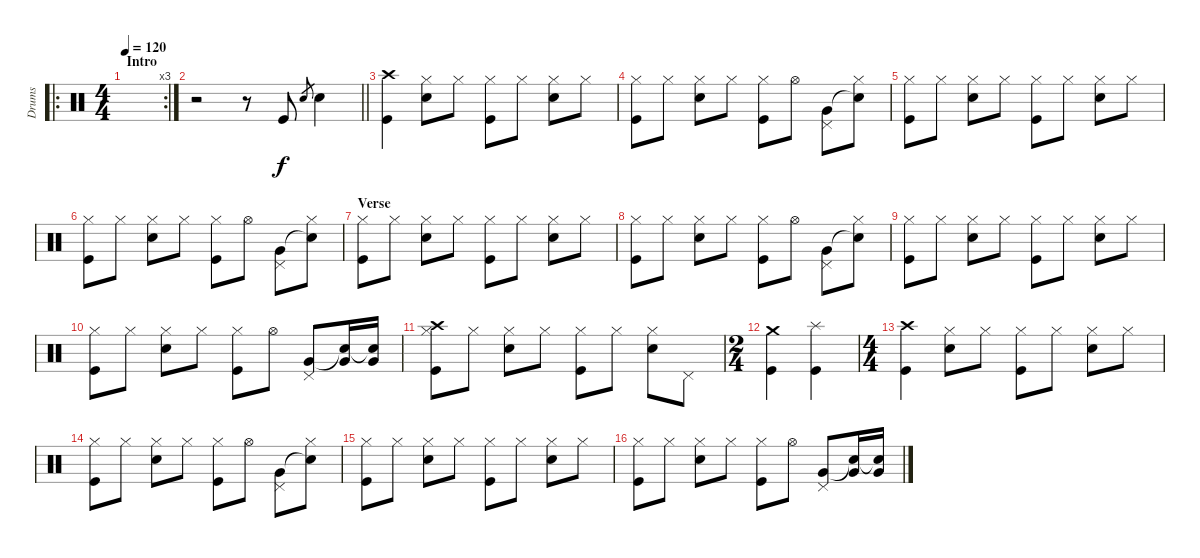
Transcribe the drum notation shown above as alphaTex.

\track ("Drums" "Drums") {instrument percussion}
\staff {score}
\articulation defaults
\ro
\rc 3
\ts (4 4)
\section ("" "Intro")
\tempo 120
\clef neutral
\ks c
|
\barLineRight lightlight
r.2 r.8 "Kick (hit)".8 "Snare (hit) 2".8{gr} "Snare (hit) 2".4 |
("Crash high (hit)" "Kick (hit)").4 ("Hi-Hat (closed)" "Snare (hit) 2").8 "Hi-Hat (closed)".8 ("Hi-Hat (closed)" "Kick (hit)").8 "Hi-Hat (closed)".8 ("Hi-Hat (closed)" "Snare (hit) 2").8 "Hi-Hat (closed)".8 |
("Hi-Hat (closed)" "Kick (hit)").8 "Hi-Hat (closed)".8 ("Hi-Hat (closed)" "Snare (hit) 2").8 "Hi-Hat (closed)".8 ("Hi-Hat (closed)" "Kick (hit)").8 "Hi-Hat (open)".8 ("Pedal Hi-Hat (hit)" "Very Low Tom (hit)").8 ("Hi-Hat (closed)" "Snare (hit)"{t}).8 |
("Hi-Hat (closed)" "Kick (hit)").8 "Hi-Hat (closed)".8 ("Hi-Hat (closed)" "Snare (hit) 2").8 "Hi-Hat (closed)".8 ("Hi-Hat (closed)" "Kick (hit)").8 "Hi-Hat (closed)".8 ("Hi-Hat (closed)" "Snare (hit) 2").8 "Hi-Hat (closed)".8 |
("Hi-Hat (closed)" "Kick (hit)").8 "Hi-Hat (closed)".8 ("Hi-Hat (closed)" "Snare (hit) 2").8 "Hi-Hat (closed)".8 ("Hi-Hat (closed)" "Kick (hit)").8 "Hi-Hat (open)".8 ("Pedal Hi-Hat (hit)" "Very Low Tom (hit)").8 ("Hi-Hat (closed)" "Snare (hit)"{t}).8 |
\section ("" "Verse")
("Hi-Hat (closed)" "Kick (hit)").8 "Hi-Hat (closed)".8 ("Hi-Hat (closed)" "Snare (hit) 2").8 "Hi-Hat (closed)".8 ("Hi-Hat (closed)" "Kick (hit)").8 "Hi-Hat (closed)".8 ("Hi-Hat (closed)" "Snare (hit) 2").8 "Hi-Hat (closed)".8 |
("Hi-Hat (closed)" "Kick (hit)").8 "Hi-Hat (closed)".8 ("Hi-Hat (closed)" "Snare (hit) 2").8 "Hi-Hat (closed)".8 ("Hi-Hat (closed)" "Kick (hit)").8 "Hi-Hat (open)".8 ("Pedal Hi-Hat (hit)" "Very Low Tom (hit)").8 ("Hi-Hat (closed)" "Snare (hit)"{t}).8 |
("Hi-Hat (closed)" "Kick (hit)").8 "Hi-Hat (closed)".8 ("Hi-Hat (closed)" "Snare (hit) 2").8 "Hi-Hat (closed)".8 ("Hi-Hat (closed)" "Kick (hit)").8 "Hi-Hat (closed)".8 ("Hi-Hat (closed)" "Snare (hit) 2").8 "Hi-Hat (closed)".8 |
("Hi-Hat (closed)" "Kick (hit)").8 "Hi-Hat (closed)".8 ("Hi-Hat (closed)" "Snare (hit) 2").8 "Hi-Hat (closed)".8 ("Hi-Hat (closed)" "Kick (hit)").8 "Hi-Hat (open)".8 ("Pedal Hi-Hat (hit)" "Very Low Tom (hit)").8 ("Very Low Tom (hit)" "Snare (hit)"{t}).16 ("Very Low Tom (hit)" "Snare (hit)"{t}).16 |
("Crash high (hit)" "Hi-Hat (closed)" "Kick (hit)").8 "Hi-Hat (closed)".8 ("Hi-Hat (closed)" "Snare (hit) 2").8 "Hi-Hat (closed)".8 ("Hi-Hat (closed)" "Kick (hit)").8 "Hi-Hat (closed)".8 ("Hi-Hat (closed)" "Snare (hit) 2").8 "Pedal Hi-Hat (hit)".8 |
\ts (2 4)
("Crash medium (hit)" "Kick (hit)").4 ("Splash (hit)" "Kick (hit)").4 |
\ts (4 4)
("Crash high (hit)" "Kick (hit)").4 ("Hi-Hat (closed)" "Snare (hit) 2").8 "Hi-Hat (closed)".8 ("Hi-Hat (closed)" "Kick (hit)").8 "Hi-Hat (closed)".8 ("Hi-Hat (closed)" "Snare (hit) 2").8 "Hi-Hat (closed)".8 |
("Hi-Hat (closed)" "Kick (hit)").8 "Hi-Hat (closed)".8 ("Hi-Hat (closed)" "Snare (hit) 2").8 "Hi-Hat (closed)".8 ("Hi-Hat (closed)" "Kick (hit)").8 "Hi-Hat (open)".8 ("Pedal Hi-Hat (hit)" "Very Low Tom (hit)").8 ("Hi-Hat (closed)" "Snare (hit)"{t}).8 |
("Hi-Hat (closed)" "Kick (hit)").8 "Hi-Hat (closed)".8 ("Hi-Hat (closed)" "Snare (hit) 2").8 "Hi-Hat (closed)".8 ("Hi-Hat (closed)" "Kick (hit)").8 "Hi-Hat (closed)".8 ("Hi-Hat (closed)" "Snare (hit) 2").8 "Hi-Hat (closed)".8 |
("Hi-Hat (closed)" "Kick (hit)").8 "Hi-Hat (closed)".8 ("Hi-Hat (closed)" "Snare (hit) 2").8 "Hi-Hat (closed)".8 ("Hi-Hat (closed)" "Kick (hit)").8 "Hi-Hat (open)".8 ("Pedal Hi-Hat (hit)" "Very Low Tom (hit)").8 ("Very Low Tom (hit)" "Snare (hit)"{t}).16 ("Very Low Tom (hit)" "Snare (hit)"{t}).16
